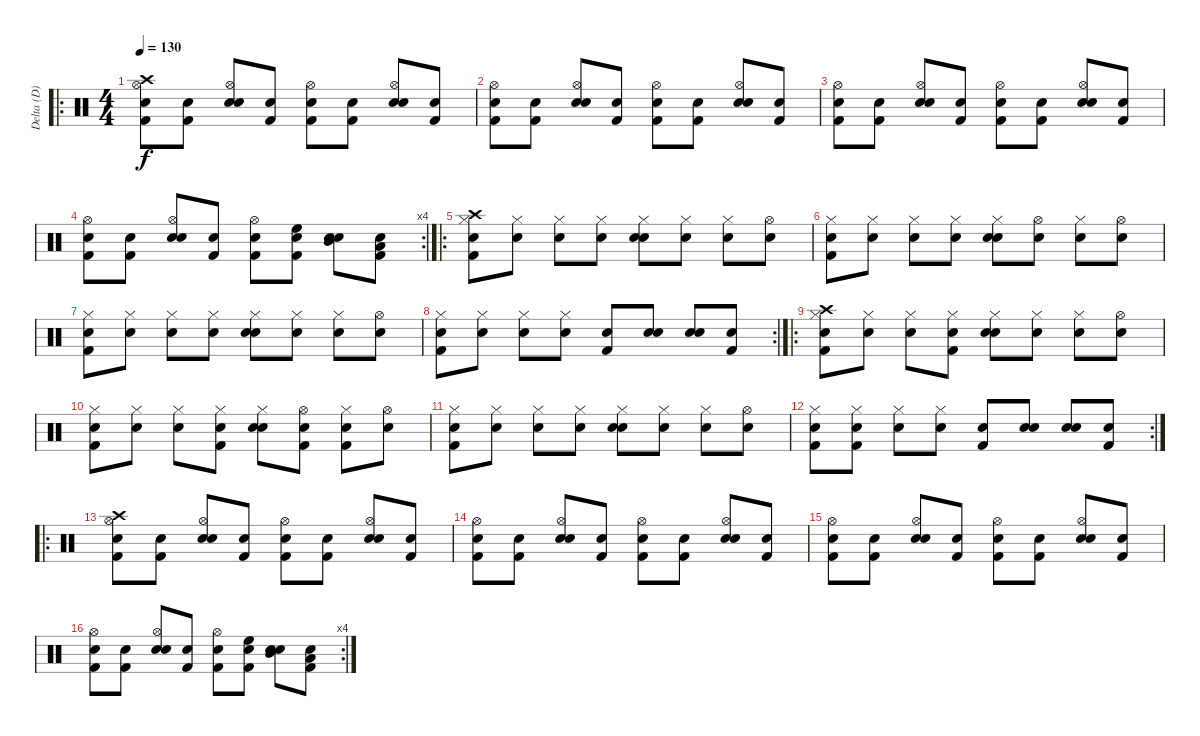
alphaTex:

\track ("Delta (D)" "Delta (D)") {instrument percussion}
\staff {score}
\articulation defaults
\ro
\ts (4 4)
\tempo 130
\clef neutral
\ks c
("Snare (hit)"{x} "Kick (hit) 2" "Hi-Hat (open)" "Crash high (hit)").8{dy f} ("Snare (hit)"{x} "Kick (hit) 2").8 ("Snare (hit)"{x} "Electric Snare (hit)" "Hi-Hat (open)").8 ("Snare (hit)"{x} "Kick (hit) 2").8 ("Snare (hit)"{x} "Kick (hit) 2" "Hi-Hat (open)").8 ("Snare (hit)"{x} "Kick (hit) 2").8 ("Snare (hit)"{x} "Electric Snare (hit)" "Hi-Hat (open)").8 ("Snare (hit)"{x} "Kick (hit) 2").8 |
("Snare (hit)"{x} "Kick (hit) 2" "Hi-Hat (open)").8 ("Snare (hit)"{x} "Kick (hit) 2").8 ("Snare (hit)"{x} "Electric Snare (hit)" "Hi-Hat (open)").8 ("Snare (hit)"{x} "Kick (hit) 2").8 ("Snare (hit)"{x} "Kick (hit) 2" "Hi-Hat (open)").8 ("Snare (hit)"{x} "Kick (hit) 2").8 ("Snare (hit)"{x} "Electric Snare (hit)" "Hi-Hat (open)").8 ("Snare (hit)"{x} "Kick (hit) 2").8 |
("Snare (hit)"{x} "Kick (hit) 2" "Hi-Hat (open)").8 ("Snare (hit)"{x} "Kick (hit) 2").8 ("Snare (hit)"{x} "Electric Snare (hit)" "Hi-Hat (open)").8 ("Snare (hit)"{x} "Kick (hit) 2").8 ("Snare (hit)"{x} "Kick (hit) 2" "Hi-Hat (open)").8 ("Snare (hit)"{x} "Kick (hit) 2").8 ("Snare (hit)"{x} "Electric Snare (hit)" "Hi-Hat (open)").8 ("Snare (hit)"{x} "Kick (hit) 2").8 |
\rc 4
("Snare (hit)"{x} "Kick (hit) 2" "Hi-Hat (open)").8 ("Snare (hit)"{x} "Kick (hit) 2").8 ("Snare (hit)"{x} "Electric Snare (hit)" "Hi-Hat (open)").8 ("Snare (hit)"{x} "Kick (hit) 2").8 ("Snare (hit)"{x} "Kick (hit) 2" "Hi-Hat (open)").8 ("Snare (hit)"{x} "Kick (hit) 2" "High Floor Tom (hit)").8 ("Snare (hit)"{x} "Electric Snare (hit)" "Mid Tom (hit)").8 ("Snare (hit)"{x} "Kick (hit) 2" "Low Tom (hit)").8 |
\ro
("Snare (hit)"{x} "Kick (hit) 2" "Hi-Hat (closed)" "Crash high (hit)").8 ("Snare (hit)"{x} "Hi-Hat (closed)").8 ("Snare (hit)"{x} "Hi-Hat (closed)").8 ("Snare (hit)"{x} "Hi-Hat (closed)").8 ("Snare (hit)"{x} "Electric Snare (hit)" "Hi-Hat (closed)").8 ("Snare (hit)"{x} "Hi-Hat (closed)").8 ("Snare (hit)"{x} "Hi-Hat (closed)").8 ("Snare (hit)"{x} "Hi-Hat (open)").8 |
("Snare (hit)"{x} "Kick (hit) 2" "Hi-Hat (closed)").8 ("Snare (hit)"{x} "Hi-Hat (closed)").8 ("Snare (hit)"{x} "Hi-Hat (closed)").8 ("Snare (hit)"{x} "Hi-Hat (closed)").8 ("Snare (hit)"{x} "Electric Snare (hit)" "Hi-Hat (closed)").8 ("Snare (hit)"{x} "Hi-Hat (open)").8 ("Snare (hit)"{x} "Hi-Hat (closed)").8 ("Snare (hit)"{x} "Hi-Hat (open)").8 |
("Snare (hit)"{x} "Kick (hit) 2" "Hi-Hat (closed)").8 ("Snare (hit)"{x} "Hi-Hat (closed)").8 ("Snare (hit)"{x} "Hi-Hat (closed)").8 ("Snare (hit)"{x} "Hi-Hat (closed)").8 ("Snare (hit)"{x} "Electric Snare (hit)" "Hi-Hat (closed)").8 ("Snare (hit)"{x} "Hi-Hat (closed)").8 ("Snare (hit)"{x} "Hi-Hat (closed)").8 ("Snare (hit)"{x} "Hi-Hat (open)").8 |
\rc 2
("Snare (hit)"{x} "Kick (hit) 2" "Hi-Hat (closed)").8 ("Snare (hit)"{x} "Hi-Hat (closed)").8 ("Snare (hit)"{x} "Hi-Hat (closed)").8 ("Snare (hit)"{x} "Hi-Hat (closed)").8 ("Snare (hit)"{x} "Kick (hit) 2").8 ("Snare (hit)"{x} "Electric Snare (hit)").8 ("Snare (hit)"{x} "Electric Snare (hit)").8 ("Snare (hit)"{x} "Kick (hit) 2").8 |
\ro
("Snare (hit)"{x} "Kick (hit) 2" "Hi-Hat (closed)" "Crash high (hit)").8 ("Snare (hit)"{x} "Hi-Hat (closed)").8 ("Snare (hit)"{x} "Hi-Hat (closed)").8 ("Snare (hit)"{x} "Kick (hit) 2" "Hi-Hat (closed)").8 ("Snare (hit)"{x} "Electric Snare (hit)" "Hi-Hat (closed)").8 ("Snare (hit)"{x} "Hi-Hat (closed)").8 ("Snare (hit)"{x} "Hi-Hat (closed)").8 ("Snare (hit)"{x} "Hi-Hat (open)").8 |
("Snare (hit)"{x} "Kick (hit) 2" "Hi-Hat (closed)").8 ("Snare (hit)"{x} "Hi-Hat (closed)").8 ("Snare (hit)"{x} "Hi-Hat (closed)").8 ("Snare (hit)"{x} "Kick (hit) 2" "Hi-Hat (closed)").8 ("Snare (hit)"{x} "Electric Snare (hit)" "Hi-Hat (closed)").8 ("Snare (hit)"{x} "Kick (hit) 2" "Hi-Hat (open)").8 ("Snare (hit)"{x} "Kick (hit) 2" "Hi-Hat (closed)").8 ("Snare (hit)"{x} "Hi-Hat (open)").8 |
("Snare (hit)"{x} "Kick (hit) 2" "Hi-Hat (closed)").8 ("Snare (hit)"{x} "Hi-Hat (closed)").8 ("Snare (hit)"{x} "Hi-Hat (closed)").8 ("Snare (hit)"{x} "Hi-Hat (closed)").8 ("Snare (hit)"{x} "Electric Snare (hit)" "Hi-Hat (closed)").8 ("Snare (hit)"{x} "Hi-Hat (closed)").8 ("Snare (hit)"{x} "Hi-Hat (closed)").8 ("Snare (hit)"{x} "Hi-Hat (open)").8 |
\rc 2
("Snare (hit)"{x} "Kick (hit) 2" "Hi-Hat (closed)").8 ("Snare (hit)"{x} "Kick (hit) 2" "Hi-Hat (closed)").8 ("Snare (hit)"{x} "Hi-Hat (closed)").8 ("Snare (hit)"{x} "Hi-Hat (closed)").8 ("Snare (hit)"{x} "Kick (hit) 2").8 ("Snare (hit)"{x} "Electric Snare (hit)").8 ("Snare (hit)"{x} "Electric Snare (hit)").8 ("Snare (hit)"{x} "Kick (hit) 2").8 |
\ro
("Snare (hit)"{x} "Kick (hit) 2" "Hi-Hat (open)" "Crash high (hit)").8 ("Snare (hit)"{x} "Kick (hit) 2").8 ("Snare (hit)"{x} "Electric Snare (hit)" "Hi-Hat (open)").8 ("Snare (hit)"{x} "Kick (hit) 2").8 ("Snare (hit)"{x} "Kick (hit) 2" "Hi-Hat (open)").8 ("Snare (hit)"{x} "Kick (hit) 2").8 ("Snare (hit)"{x} "Electric Snare (hit)" "Hi-Hat (open)").8 ("Snare (hit)"{x} "Kick (hit) 2").8 |
("Snare (hit)"{x} "Kick (hit) 2" "Hi-Hat (open)").8 ("Snare (hit)"{x} "Kick (hit) 2").8 ("Snare (hit)"{x} "Electric Snare (hit)" "Hi-Hat (open)").8 ("Snare (hit)"{x} "Kick (hit) 2").8 ("Snare (hit)"{x} "Kick (hit) 2" "Hi-Hat (open)").8 ("Snare (hit)"{x} "Kick (hit) 2").8 ("Snare (hit)"{x} "Electric Snare (hit)" "Hi-Hat (open)").8 ("Snare (hit)"{x} "Kick (hit) 2").8 |
("Snare (hit)"{x} "Kick (hit) 2" "Hi-Hat (open)").8 ("Snare (hit)"{x} "Kick (hit) 2").8 ("Snare (hit)"{x} "Electric Snare (hit)" "Hi-Hat (open)").8 ("Snare (hit)"{x} "Kick (hit) 2").8 ("Snare (hit)"{x} "Kick (hit) 2" "Hi-Hat (open)").8 ("Snare (hit)"{x} "Kick (hit) 2").8 ("Snare (hit)"{x} "Electric Snare (hit)" "Hi-Hat (open)").8 ("Snare (hit)"{x} "Kick (hit) 2").8 |
\rc 4
("Snare (hit)"{x} "Kick (hit) 2" "Hi-Hat (open)").8 ("Snare (hit)"{x} "Kick (hit) 2").8 ("Snare (hit)"{x} "Electric Snare (hit)" "Hi-Hat (open)").8 ("Snare (hit)"{x} "Kick (hit) 2").8 ("Snare (hit)"{x} "Kick (hit) 2" "Hi-Hat (open)").8 ("Snare (hit)"{x} "Kick (hit) 2" "High Floor Tom (hit)").8 ("Snare (hit)"{x} "Electric Snare (hit)" "Mid Tom (hit)").8 ("Snare (hit)"{x} "Kick (hit) 2" "Low Tom (hit)").8
